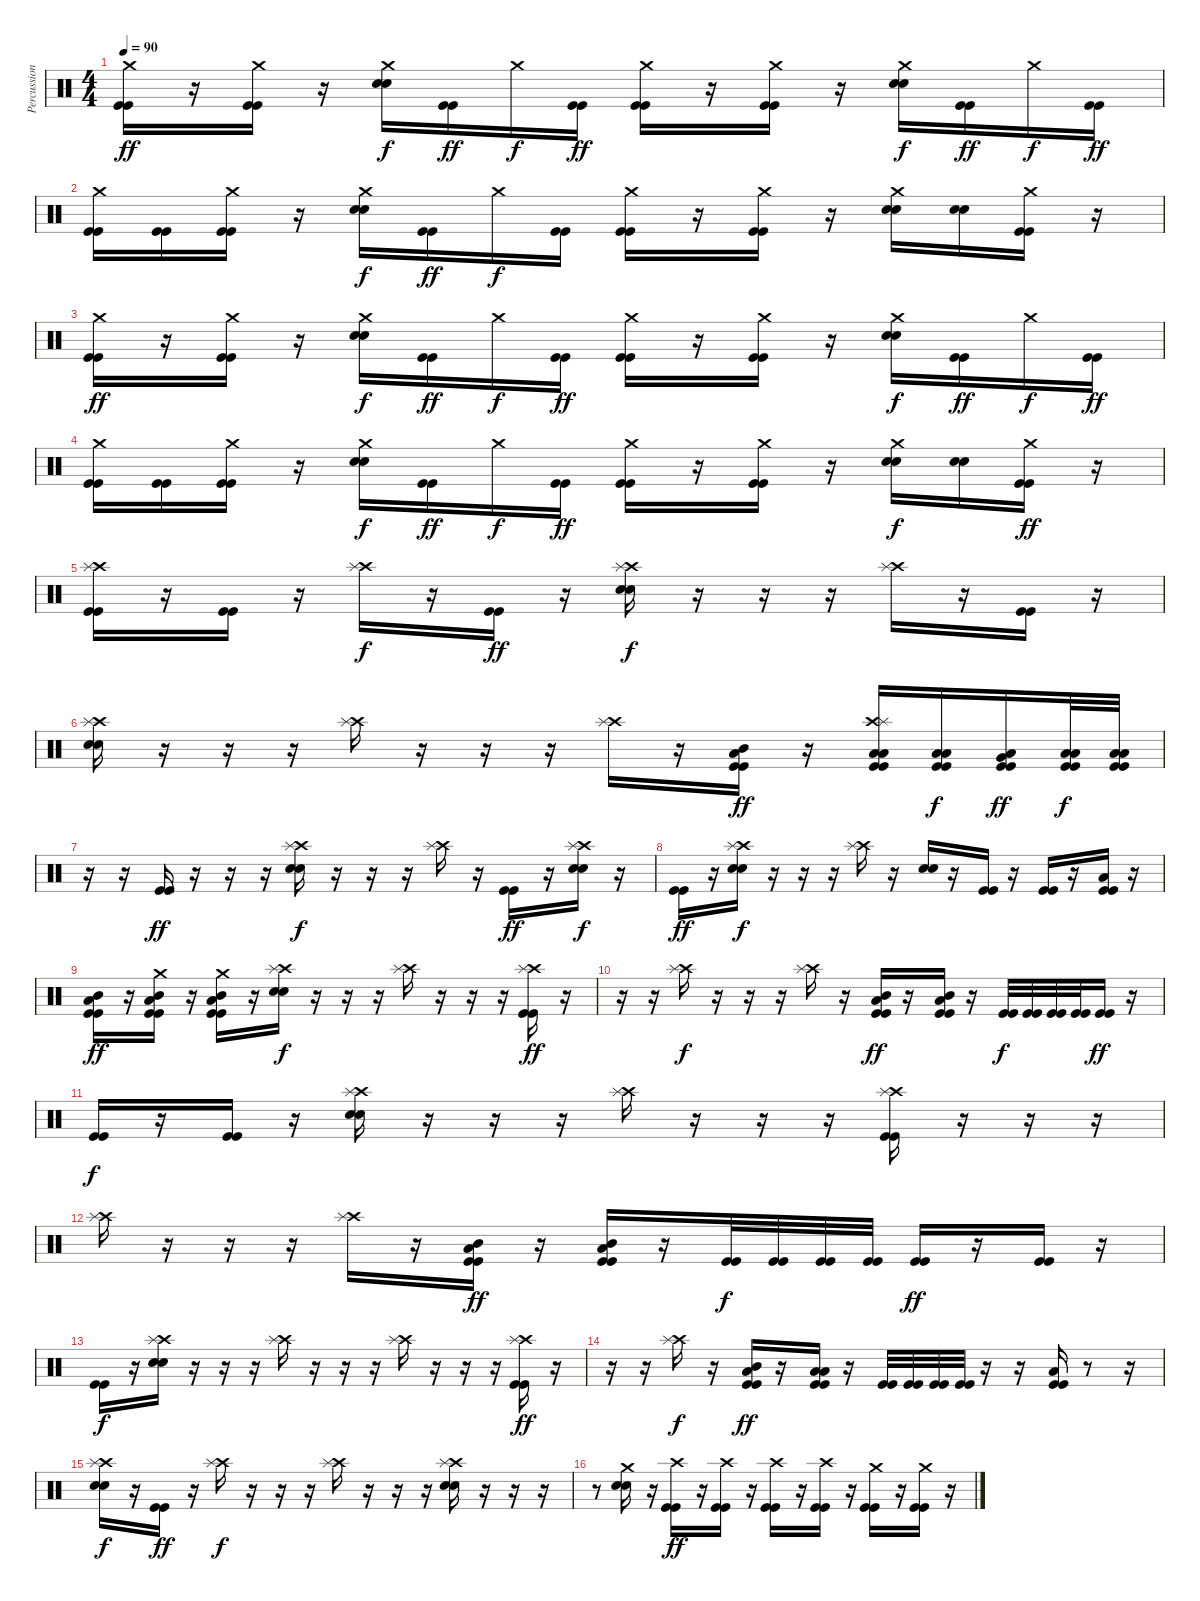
\track ("Percussions" "Percussion") {instrument percussion}
\staff {score}
\articulation defaults
\ts (4 4)
\tempo 90
\clef neutral
\ks c
("Crash medium (hit)" "Kick (hit)" "Kick (hit)").16{dy ff} r.16 ("Crash medium (hit)" "Kick (hit)" "Kick (hit)").16 r.16 ("Crash medium (hit)" "Electric Snare (hit)" "Electric Snare (hit)").16{dy f} ("Kick (hit)" "Kick (hit)").16{dy ff} "Crash medium (hit)".16{dy f} ("Kick (hit)" "Kick (hit)").16{dy ff} ("Crash medium (hit)" "Kick (hit)" "Kick (hit)").16 r.16 ("Crash medium (hit)" "Kick (hit)" "Kick (hit)").16 r.16 ("Crash medium (hit)" "Electric Snare (hit)" "Electric Snare (hit)").16{dy f} ("Kick (hit)" "Kick (hit)").16{dy ff} "Crash medium (hit)".16{dy f} ("Kick (hit)" "Kick (hit)").16{dy ff} |
("Crash medium (hit)" "Kick (hit)" "Kick (hit)").16 ("Kick (hit)" "Kick (hit)").16 ("Crash medium (hit)" "Kick (hit)" "Kick (hit)").16 r.16 ("Crash medium (hit)" "Electric Snare (hit)" "Electric Snare (hit)").16{dy f} ("Kick (hit)" "Kick (hit)").16{dy ff} "Crash medium (hit)".16{dy f} ("Kick (hit)" "Kick (hit)").16 ("Crash medium (hit)" "Kick (hit)" "Kick (hit)").16 r.16 ("Crash medium (hit)" "Kick (hit)" "Kick (hit)").16 r.16 ("Crash medium (hit)" "Electric Snare (hit)" "Electric Snare (hit)").16 ("Electric Snare (hit)" "Electric Snare (hit)").16 ("Crash medium (hit)" "Kick (hit)" "Kick (hit)").16 r.16 |
("Crash medium (hit)" "Kick (hit)" "Kick (hit)").16{dy ff} r.16 ("Crash medium (hit)" "Kick (hit)" "Kick (hit)").16 r.16 ("Crash medium (hit)" "Electric Snare (hit)" "Electric Snare (hit)").16{dy f} ("Kick (hit)" "Kick (hit)").16{dy ff} "Crash medium (hit)".16{dy f} ("Kick (hit)" "Kick (hit)").16{dy ff} ("Crash medium (hit)" "Kick (hit)" "Kick (hit)").16 r.16 ("Crash medium (hit)" "Kick (hit)" "Kick (hit)").16 r.16 ("Crash medium (hit)" "Electric Snare (hit)" "Electric Snare (hit)").16{dy f} ("Kick (hit)" "Kick (hit)").16{dy ff} "Crash medium (hit)".16{dy f} ("Kick (hit)" "Kick (hit)").16{dy ff} |
("Crash medium (hit)" "Kick (hit)" "Kick (hit)").16 ("Kick (hit)" "Kick (hit)").16 ("Crash medium (hit)" "Kick (hit)" "Kick (hit)").16 r.16 ("Crash medium (hit)" "Electric Snare (hit)" "Electric Snare (hit)").16{dy f} ("Kick (hit)" "Kick (hit)").16{dy ff} "Crash medium (hit)".16{dy f} ("Kick (hit)" "Kick (hit)").16{dy ff} ("Crash medium (hit)" "Kick (hit)" "Kick (hit)").16 r.16 ("Crash medium (hit)" "Kick (hit)" "Kick (hit)").16 r.16 ("Crash medium (hit)" "Electric Snare (hit)" "Electric Snare (hit)").16{dy f} ("Electric Snare (hit)" "Electric Snare (hit)").16 ("Crash medium (hit)" "Kick (hit)" "Kick (hit)").16{dy ff} r.16 |
("Crash high (hit)" "Splash (hit)" "Kick (hit)" "Kick (hit)").16 r.16 ("Kick (hit)" "Kick (hit)").16 r.16 ("Crash high (hit)" "Splash (hit)").16{dy f} r.16 ("Kick (hit)" "Kick (hit)").16{dy ff} r.16 ("Crash high (hit)" "Splash (hit)" "Electric Snare (hit)" "Electric Snare (hit)").16{dy f} r.16 r.16 r.16 ("Crash high (hit)" "Splash (hit)").16 r.16 ("Kick (hit)" "Kick (hit)").16 r.16 |
("Crash high (hit)" "Splash (hit)" "Electric Snare (hit)" "Electric Snare (hit)").16 r.16 r.16 r.16 ("Crash high (hit)" "Splash (hit)").16 r.16 r.16 r.16 ("Crash high (hit)" "Splash (hit)").16 r.16 ("Mid Tom (hit)" "Low Floor Tom (hit)" "Kick (hit)" "Kick (hit)").16{dy ff} r.16 ("Crash high (hit)" "Splash (hit)" "Low Tom (hit)" "Low Floor Tom (hit)" "Kick (hit)" "Kick (hit)").16 ("Low Floor Tom (hit)" "Low Floor Tom (hit)" "Kick (hit)" "Kick (hit)").16{dy f} ("Very Low Tom (hit)" "Low Floor Tom (hit)" "Kick (hit)" "Kick (hit)").16{dy ff} ("Low Floor Tom (hit)" "Low Floor Tom (hit)" "Kick (hit)" "Kick (hit)").32{dy f} ("Low Floor Tom (hit)" "Low Floor Tom (hit)" "Kick (hit)" "Kick (hit)").32 |
r.16 r.16 ("Kick (hit)" "Kick (hit)").16{dy ff} r.16 r.16 r.16 ("Crash high (hit)" "Splash (hit)" "Electric Snare (hit)" "Electric Snare (hit)").16{dy f} r.16 r.16 r.16 ("Crash high (hit)" "Splash (hit)").16 r.16 ("Kick (hit)" "Kick (hit)").16{dy ff} r.16 ("Crash high (hit)" "Splash (hit)" "Electric Snare (hit)" "Electric Snare (hit)").16{dy f} r.16 |
("Kick (hit)" "Kick (hit)").16{dy ff} r.16 ("Crash high (hit)" "Splash (hit)" "Electric Snare (hit)" "Electric Snare (hit)").16{dy f} r.16 r.16 r.16 ("Crash high (hit)" "Splash (hit)").16 r.16 ("Electric Snare (hit)" "Electric Snare (hit)").16 r.16 ("Kick (hit)" "Kick (hit)").16 r.16 ("Kick (hit)" "Kick (hit)").16 r.16 ("Low Floor Tom (hit)" "Kick (hit)" "Kick (hit)").16 r.16 |
("Mid Tom (hit)" "Low Floor Tom (hit)" "Kick (hit)" "Kick (hit)").16{dy ff} r.16 ("Crash medium (hit)" "Mid Tom (hit)" "Low Floor Tom (hit)" "Kick (hit)" "Kick (hit)").16 r.16 ("Crash medium (hit)" "Mid Tom (hit)" "Low Floor Tom (hit)" "Kick (hit)" "Kick (hit)").16 r.16 ("Crash high (hit)" "Splash (hit)" "Electric Snare (hit)" "Electric Snare (hit)").16{dy f} r.16 r.16 r.16 ("Crash high (hit)" "Splash (hit)").16 r.16 r.16 r.16 ("Crash high (hit)" "Splash (hit)" "Kick (hit)" "Kick (hit)").16{dy ff} r.16 |
r.16 r.16 ("Crash high (hit)" "Splash (hit)").16{dy f} r.16 r.16 r.16 ("Crash high (hit)" "Splash (hit)").16 r.16 ("Mid Tom (hit)" "Low Floor Tom (hit)" "Kick (hit)" "Kick (hit)").16{dy ff} r.16 ("Mid Tom (hit)" "Low Floor Tom (hit)" "Kick (hit)" "Kick (hit)").16 r.16 ("Kick (hit)" "Kick (hit)").32{dy f} ("Kick (hit)" "Kick (hit)").32 ("Kick (hit)" "Kick (hit)").32 ("Kick (hit)" "Kick (hit)").32 ("Kick (hit)" "Kick (hit)").16{dy ff} r.16 |
("Kick (hit)" "Kick (hit)").16{dy f} r.16 ("Kick (hit)" "Kick (hit)").16 r.16 ("Crash high (hit)" "Splash (hit)" "Electric Snare (hit)" "Electric Snare (hit)").16 r.16 r.16 r.16 ("Crash high (hit)" "Splash (hit)").16 r.16 r.16 r.16 ("Crash high (hit)" "Splash (hit)" "Kick (hit)" "Kick (hit)").16 r.16 r.16 r.16 |
("Crash high (hit)" "Splash (hit)").16 r.16 r.16 r.16 ("Crash high (hit)" "Splash (hit)").16 r.16 ("Mid Tom (hit)" "Low Floor Tom (hit)" "Kick (hit)" "Kick (hit)").16{dy ff} r.16 ("Mid Tom (hit)" "Low Floor Tom (hit)" "Kick (hit)" "Kick (hit)").16 r.16 ("Kick (hit)" "Kick (hit)").32{dy f} ("Kick (hit)" "Kick (hit)").32 ("Kick (hit)" "Kick (hit)").32 ("Kick (hit)" "Kick (hit)").32 ("Kick (hit)" "Kick (hit)").16{dy ff} r.16 ("Kick (hit)" "Kick (hit)").16 r.16 |
("Kick (hit)" "Kick (hit)").16{dy f} r.16 ("Crash high (hit)" "Splash (hit)" "Electric Snare (hit)" "Electric Snare (hit)").16 r.16 r.16 r.16 ("Crash high (hit)" "Splash (hit)").16 r.16 r.16 r.16 ("Crash high (hit)" "Splash (hit)").16 r.16 r.16 r.16 ("Crash high (hit)" "Splash (hit)" "Kick (hit)" "Kick (hit)").16{dy ff} r.16 |
r.16 r.16 ("Crash high (hit)" "Splash (hit)").16{dy f} r.16 ("Mid Tom (hit)" "Low Floor Tom (hit)" "Kick (hit)" "Kick (hit)").16{dy ff} r.16 ("Low Tom (hit)" "Low Floor Tom (hit)" "Kick (hit)" "Kick (hit)").16 r.16 ("Kick (hit)" "Kick (hit)").32 ("Kick (hit)" "Kick (hit)").32 ("Kick (hit)" "Kick (hit)").32 ("Kick (hit)" "Kick (hit)").32 r.16 r.16 ("Low Floor Tom (hit)" "Kick (hit)" "Kick (hit)").16 r.8 r.16 |
("Crash high (hit)" "Splash (hit)" "Electric Snare (hit)" "Electric Snare (hit)").16{dy f} r.16 ("Kick (hit)" "Kick (hit)").16{dy ff} r.16 ("Crash high (hit)" "Splash (hit)").16{dy f} r.16 r.16 r.16 ("Crash high (hit)" "Splash (hit)").16 r.16 r.16 r.16 ("Crash high (hit)" "Splash (hit)" "Electric Snare (hit)" "Electric Snare (hit)").16 r.16 r.16 r.16 |
r.8 ("Crash medium (hit)" "Electric Snare (hit)" "Electric Snare (hit)").16 r.16 ("Crash high (hit)" "Kick (hit)" "Kick (hit)").16{dy ff} r.16 ("Crash high (hit)" "Kick (hit)" "Kick (hit)").16 r.16 ("Crash high (hit)" "Kick (hit)" "Kick (hit)").16 r.16 ("Crash high (hit)" "Kick (hit)" "Kick (hit)").16 r.16 ("Crash medium (hit)" "Kick (hit)" "Kick (hit)").16 r.16 ("Crash medium (hit)" "Kick (hit)" "Kick (hit)").16 r.16
